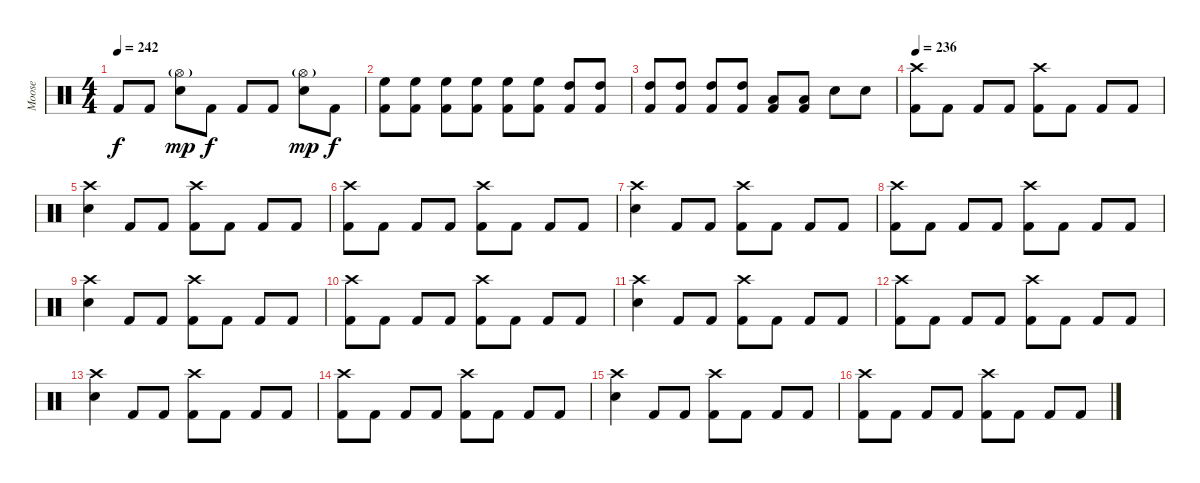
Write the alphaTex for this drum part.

\track ("Moose" "Moose") {instrument percussion}
\staff {score}
\articulation defaults
\ts (4 4)
\tempo 242
\clef neutral
\ks c "Kick (hit) 2".8{dy f} "Kick (hit) 2".8
("Hi-Hat (open)"{g} "Electric Snare (hit)").8{dy mp} "Kick (hit) 2".8{dy f} "Kick (hit) 2".8 "Kick (hit) 2".8 ("Hi-Hat (open)"{g} "Electric Snare (hit)").8{dy mp} "Kick (hit) 2".8{dy f} |
("High Floor Tom (hit)" "Kick (hit) 2").8 ("High Floor Tom (hit)" "Kick (hit) 2").8 ("High Floor Tom (hit)" "Kick (hit) 2").8 ("High Floor Tom (hit)" "Kick (hit) 2").8 ("High Floor Tom (hit)" "Kick (hit) 2").8 ("High Floor Tom (hit)" "Kick (hit) 2").8 ("High Tom (hit)" "Kick (hit) 2").8 ("High Tom (hit)" "Kick (hit) 2").8 |
("High Tom (hit)" "Kick (hit) 2").8 ("High Tom (hit)" "Kick (hit) 2").8 ("High Tom (hit)" "Kick (hit) 2").8 ("High Tom (hit)" "Kick (hit) 2").8 ("Low Tom (hit)" "Kick (hit) 2").8 ("Low Tom (hit)" "Kick (hit) 2").8 "Electric Snare (hit)".8 "Electric Snare (hit)".8 |
\tempo 236
("Crash high (hit)" "Kick (hit) 2").8 "Kick (hit) 2".8 "Kick (hit) 2".8 "Kick (hit) 2".8 ("Crash high (hit)" "Kick (hit) 2").8 "Kick (hit) 2".8 "Kick (hit) 2".8 "Kick (hit) 2".8 |
("Crash high (hit)" "Electric Snare (hit)").4 "Kick (hit) 2".8 "Kick (hit) 2".8 ("Crash high (hit)" "Kick (hit) 2").8 "Kick (hit) 2".8 "Kick (hit) 2".8 "Kick (hit) 2".8 |
("Crash high (hit)" "Kick (hit) 2").8 "Kick (hit) 2".8 "Kick (hit) 2".8 "Kick (hit) 2".8 ("Crash high (hit)" "Kick (hit) 2").8 "Kick (hit) 2".8 "Kick (hit) 2".8 "Kick (hit) 2".8 |
("Crash high (hit)" "Electric Snare (hit)").4 "Kick (hit) 2".8 "Kick (hit) 2".8 ("Crash high (hit)" "Kick (hit) 2").8 "Kick (hit) 2".8 "Kick (hit) 2".8 "Kick (hit) 2".8 |
("Crash high (hit)" "Kick (hit) 2").8 "Kick (hit) 2".8 "Kick (hit) 2".8 "Kick (hit) 2".8 ("Crash high (hit)" "Kick (hit) 2").8 "Kick (hit) 2".8 "Kick (hit) 2".8 "Kick (hit) 2".8 |
("Crash high (hit)" "Electric Snare (hit)").4 "Kick (hit) 2".8 "Kick (hit) 2".8 ("Crash high (hit)" "Kick (hit) 2").8 "Kick (hit) 2".8 "Kick (hit) 2".8 "Kick (hit) 2".8 |
("Crash high (hit)" "Kick (hit) 2").8 "Kick (hit) 2".8 "Kick (hit) 2".8 "Kick (hit) 2".8 ("Crash high (hit)" "Kick (hit) 2").8 "Kick (hit) 2".8 "Kick (hit) 2".8 "Kick (hit) 2".8 |
("Crash high (hit)" "Electric Snare (hit)").4 "Kick (hit) 2".8 "Kick (hit) 2".8 ("Crash high (hit)" "Kick (hit) 2").8 "Kick (hit) 2".8 "Kick (hit) 2".8 "Kick (hit) 2".8 |
("Crash high (hit)" "Kick (hit) 2").8 "Kick (hit) 2".8 "Kick (hit) 2".8 "Kick (hit) 2".8 ("Crash high (hit)" "Kick (hit) 2").8 "Kick (hit) 2".8 "Kick (hit) 2".8 "Kick (hit) 2".8 |
("Crash high (hit)" "Electric Snare (hit)").4 "Kick (hit) 2".8 "Kick (hit) 2".8 ("Crash high (hit)" "Kick (hit) 2").8 "Kick (hit) 2".8 "Kick (hit) 2".8 "Kick (hit) 2".8 |
("Crash high (hit)" "Kick (hit) 2").8 "Kick (hit) 2".8 "Kick (hit) 2".8 "Kick (hit) 2".8 ("Crash high (hit)" "Kick (hit) 2").8 "Kick (hit) 2".8 "Kick (hit) 2".8 "Kick (hit) 2".8 |
("Crash high (hit)" "Electric Snare (hit)").4 "Kick (hit) 2".8 "Kick (hit) 2".8 ("Crash high (hit)" "Kick (hit) 2").8 "Kick (hit) 2".8 "Kick (hit) 2".8 "Kick (hit) 2".8 |
("Crash high (hit)" "Kick (hit) 2").8 "Kick (hit) 2".8 "Kick (hit) 2".8 "Kick (hit) 2".8 ("Crash high (hit)" "Kick (hit) 2").8 "Kick (hit) 2".8 "Kick (hit) 2".8 "Kick (hit) 2".8
